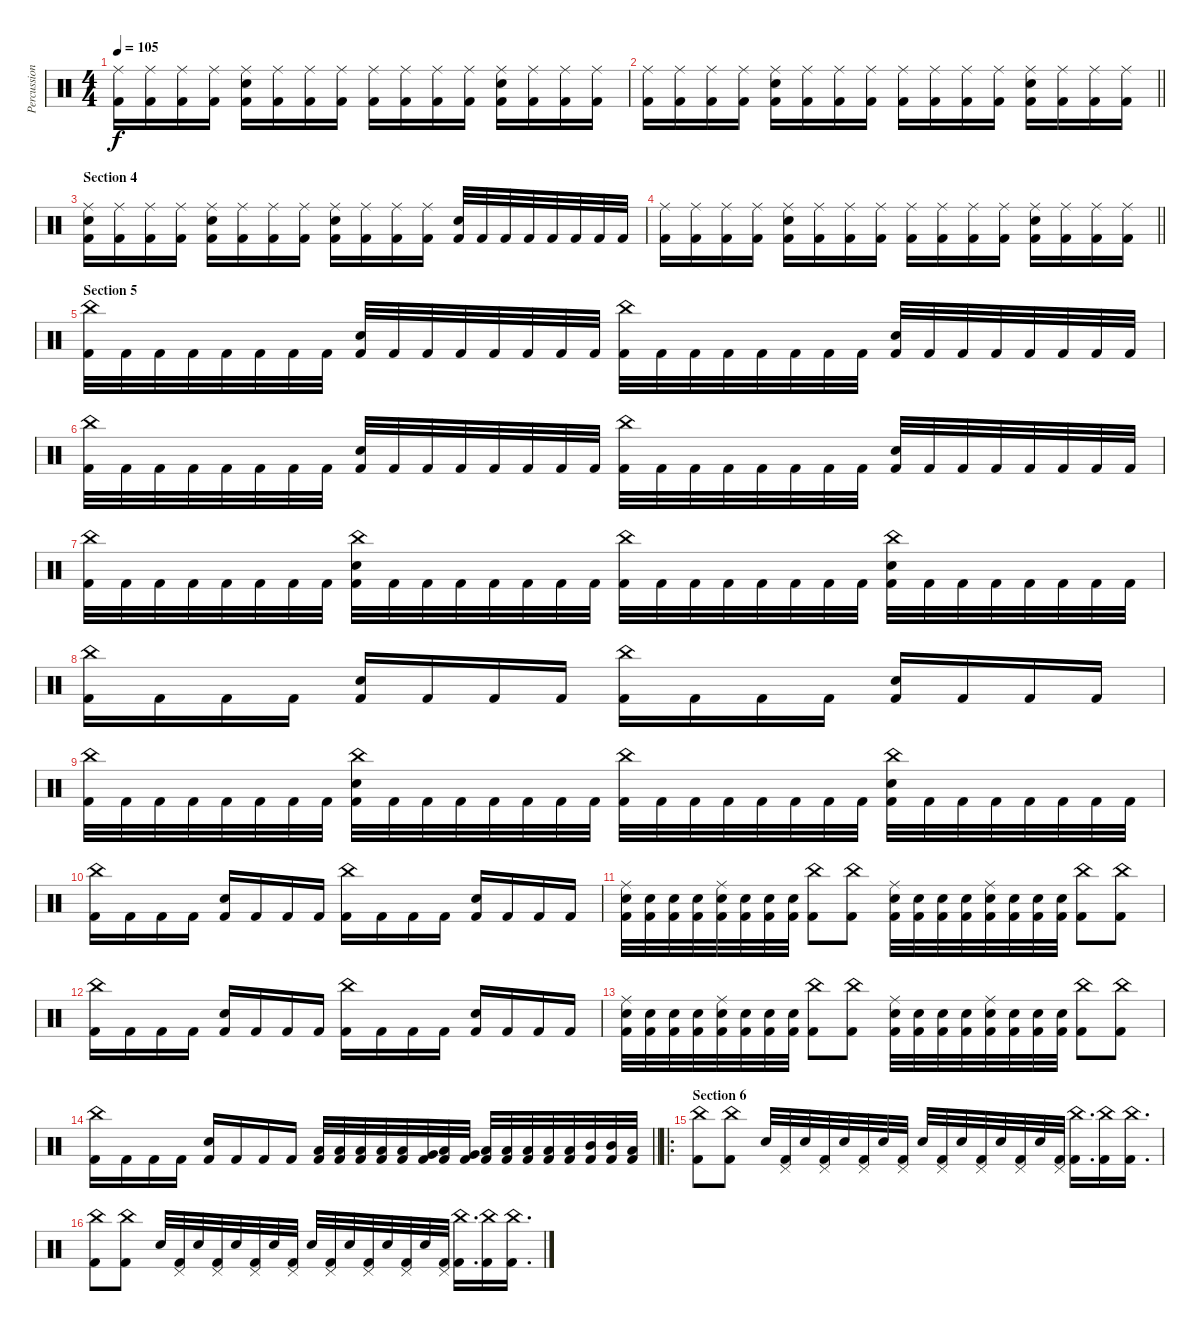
\track ("Percussions" "Percussion") {instrument percussion}
\staff {score}
\articulation defaults
\ts (4 4)
\tempo 105
\clef neutral
\ks c
("Ride (middle)" "Kick (hit) 2").16{dy f} ("Ride (middle)" "Kick (hit) 2").16 ("Ride (middle)" "Kick (hit) 2").16 ("Ride (middle)" "Kick (hit) 2").16 ("Ride (middle)" "Electric Snare (hit)" "Kick (hit) 2").16 ("Ride (middle)" "Kick (hit) 2").16 ("Ride (middle)" "Kick (hit) 2").16 ("Ride (middle)" "Kick (hit) 2").16 ("Ride (middle)" "Kick (hit) 2").16 ("Ride (middle)" "Kick (hit) 2").16 ("Ride (middle)" "Kick (hit) 2").16 ("Ride (middle)" "Kick (hit) 2").16 ("Ride (middle)" "Electric Snare (hit)" "Kick (hit) 2").16 ("Ride (middle)" "Kick (hit) 2").16 ("Ride (middle)" "Kick (hit) 2").16 ("Ride (middle)" "Kick (hit) 2").16 |
\barLineRight lightlight
("Ride (middle)" "Kick (hit) 2").16 ("Ride (middle)" "Kick (hit) 2").16 ("Ride (middle)" "Kick (hit) 2").16 ("Ride (middle)" "Kick (hit) 2").16 ("Ride (middle)" "Electric Snare (hit)" "Kick (hit) 2").16 ("Ride (middle)" "Kick (hit) 2").16 ("Ride (middle)" "Kick (hit) 2").16 ("Ride (middle)" "Kick (hit) 2").16 ("Ride (middle)" "Kick (hit) 2").16 ("Ride (middle)" "Kick (hit) 2").16 ("Ride (middle)" "Kick (hit) 2").16 ("Ride (middle)" "Kick (hit) 2").16 ("Ride (middle)" "Electric Snare (hit)" "Kick (hit) 2").16 ("Ride (middle)" "Kick (hit) 2").16 ("Ride (middle)" "Kick (hit) 2").16 ("Ride (middle)" "Kick (hit) 2").16 |
\section ("" "Section 4")
("Ride (middle)" "Electric Snare (hit)" "Kick (hit) 2").16 ("Ride (middle)" "Kick (hit) 2").16 ("Ride (middle)" "Kick (hit) 2").16 ("Ride (middle)" "Kick (hit) 2").16 ("Ride (middle)" "Electric Snare (hit)" "Kick (hit) 2").16 ("Ride (middle)" "Kick (hit) 2").16 ("Ride (middle)" "Kick (hit) 2").16 ("Ride (middle)" "Kick (hit) 2").16 ("Ride (middle)" "Electric Snare (hit)" "Kick (hit) 2").16 ("Ride (middle)" "Kick (hit) 2").16 ("Ride (middle)" "Kick (hit) 2").16 ("Ride (middle)" "Kick (hit) 2").16 ("Electric Snare (hit)" "Kick (hit) 2").32 "Kick (hit) 2".32 "Kick (hit) 2".32 "Kick (hit) 2".32 "Kick (hit) 2".32 "Kick (hit) 2".32 "Kick (hit) 2".32 "Kick (hit) 2".32 |
\barLineRight lightlight
("Ride (middle)" "Kick (hit) 2").16 ("Ride (middle)" "Kick (hit) 2").16 ("Ride (middle)" "Kick (hit) 2").16 ("Ride (middle)" "Kick (hit) 2").16 ("Ride (middle)" "Electric Snare (hit)" "Kick (hit) 2").16 ("Ride (middle)" "Kick (hit) 2").16 ("Ride (middle)" "Kick (hit) 2").16 ("Ride (middle)" "Kick (hit) 2").16 ("Ride (middle)" "Kick (hit) 2").16 ("Ride (middle)" "Kick (hit) 2").16 ("Ride (middle)" "Kick (hit) 2").16 ("Ride (middle)" "Kick (hit) 2").16 ("Ride (middle)" "Electric Snare (hit)" "Kick (hit) 2").16 ("Ride (middle)" "Kick (hit) 2").16 ("Ride (middle)" "Kick (hit) 2").16 ("Ride (middle)" "Kick (hit) 2").16 |
\section ("" "Section 5")
("China (hit)" "Kick (hit) 2").32 "Kick (hit) 2".32 "Kick (hit) 2".32 "Kick (hit) 2".32 "Kick (hit) 2".32 "Kick (hit) 2".32 "Kick (hit) 2".32 "Kick (hit) 2".32 ("Electric Snare (hit)" "Kick (hit) 2").32 "Kick (hit) 2".32 "Kick (hit) 2".32 "Kick (hit) 2".32 "Kick (hit) 2".32 "Kick (hit) 2".32 "Kick (hit) 2".32 "Kick (hit) 2".32 ("China (hit)" "Kick (hit) 2").32 "Kick (hit) 2".32 "Kick (hit) 2".32 "Kick (hit) 2".32 "Kick (hit) 2".32 "Kick (hit) 2".32 "Kick (hit) 2".32 "Kick (hit) 2".32 ("Electric Snare (hit)" "Kick (hit) 2").32 "Kick (hit) 2".32 "Kick (hit) 2".32 "Kick (hit) 2".32 "Kick (hit) 2".32 "Kick (hit) 2".32 "Kick (hit) 2".32 "Kick (hit) 2".32 |
("China (hit)" "Kick (hit) 2").32 "Kick (hit) 2".32 "Kick (hit) 2".32 "Kick (hit) 2".32 "Kick (hit) 2".32 "Kick (hit) 2".32 "Kick (hit) 2".32 "Kick (hit) 2".32 ("Electric Snare (hit)" "Kick (hit) 2").32 "Kick (hit) 2".32 "Kick (hit) 2".32 "Kick (hit) 2".32 "Kick (hit) 2".32 "Kick (hit) 2".32 "Kick (hit) 2".32 "Kick (hit) 2".32 ("China (hit)" "Kick (hit) 2").32 "Kick (hit) 2".32 "Kick (hit) 2".32 "Kick (hit) 2".32 "Kick (hit) 2".32 "Kick (hit) 2".32 "Kick (hit) 2".32 "Kick (hit) 2".32 ("Electric Snare (hit)" "Kick (hit) 2").32 "Kick (hit) 2".32 "Kick (hit) 2".32 "Kick (hit) 2".32 "Kick (hit) 2".32 "Kick (hit) 2".32 "Kick (hit) 2".32 "Kick (hit) 2".32 |
("China (hit)" "Kick (hit) 2").32 "Kick (hit) 2".32 "Kick (hit) 2".32 "Kick (hit) 2".32 "Kick (hit) 2".32 "Kick (hit) 2".32 "Kick (hit) 2".32 "Kick (hit) 2".32 ("China (hit)" "Electric Snare (hit)" "Kick (hit) 2").32 "Kick (hit) 2".32 "Kick (hit) 2".32 "Kick (hit) 2".32 "Kick (hit) 2".32 "Kick (hit) 2".32 "Kick (hit) 2".32 "Kick (hit) 2".32 ("China (hit)" "Kick (hit) 2").32 "Kick (hit) 2".32 "Kick (hit) 2".32 "Kick (hit) 2".32 "Kick (hit) 2".32 "Kick (hit) 2".32 "Kick (hit) 2".32 "Kick (hit) 2".32 ("China (hit)" "Electric Snare (hit)" "Kick (hit) 2").32 "Kick (hit) 2".32 "Kick (hit) 2".32 "Kick (hit) 2".32 "Kick (hit) 2".32 "Kick (hit) 2".32 "Kick (hit) 2".32 "Kick (hit) 2".32 |
("China (hit)" "Kick (hit) 2").16 "Kick (hit) 2".16 "Kick (hit) 2".16 "Kick (hit) 2".16 ("Electric Snare (hit)" "Kick (hit) 2").16 "Kick (hit) 2".16 "Kick (hit) 2".16 "Kick (hit) 2".16 ("China (hit)" "Kick (hit) 2").16 "Kick (hit) 2".16 "Kick (hit) 2".16 "Kick (hit) 2".16 ("Electric Snare (hit)" "Kick (hit) 2").16 "Kick (hit) 2".16 "Kick (hit) 2".16 "Kick (hit) 2".16 |
("China (hit)" "Kick (hit) 2").32 "Kick (hit) 2".32 "Kick (hit) 2".32 "Kick (hit) 2".32 "Kick (hit) 2".32 "Kick (hit) 2".32 "Kick (hit) 2".32 "Kick (hit) 2".32 ("China (hit)" "Electric Snare (hit)" "Kick (hit) 2").32 "Kick (hit) 2".32 "Kick (hit) 2".32 "Kick (hit) 2".32 "Kick (hit) 2".32 "Kick (hit) 2".32 "Kick (hit) 2".32 "Kick (hit) 2".32 ("China (hit)" "Kick (hit) 2").32 "Kick (hit) 2".32 "Kick (hit) 2".32 "Kick (hit) 2".32 "Kick (hit) 2".32 "Kick (hit) 2".32 "Kick (hit) 2".32 "Kick (hit) 2".32 ("China (hit)" "Electric Snare (hit)" "Kick (hit) 2").32 "Kick (hit) 2".32 "Kick (hit) 2".32 "Kick (hit) 2".32 "Kick (hit) 2".32 "Kick (hit) 2".32 "Kick (hit) 2".32 "Kick (hit) 2".32 |
("China (hit)" "Kick (hit) 2").16 "Kick (hit) 2".16 "Kick (hit) 2".16 "Kick (hit) 2".16 ("Electric Snare (hit)" "Kick (hit) 2").16 "Kick (hit) 2".16 "Kick (hit) 2".16 "Kick (hit) 2".16 ("China (hit)" "Kick (hit) 2").16 "Kick (hit) 2".16 "Kick (hit) 2".16 "Kick (hit) 2".16 ("Electric Snare (hit)" "Kick (hit) 2").16 "Kick (hit) 2".16 "Kick (hit) 2".16 "Kick (hit) 2".16 |
("Ride (middle)" "Electric Snare (hit)" "Kick (hit) 2").32 ("Electric Snare (hit)" "Kick (hit) 2").32 ("Electric Snare (hit)" "Kick (hit) 2").32 ("Electric Snare (hit)" "Kick (hit) 2").32 ("Ride (middle)" "Electric Snare (hit)" "Kick (hit) 2").32 ("Electric Snare (hit)" "Kick (hit) 2").32 ("Electric Snare (hit)" "Kick (hit) 2").32 ("Electric Snare (hit)" "Kick (hit) 2").32 ("China (hit)" "Kick (hit) 2").8 ("China (hit)" "Kick (hit) 2").8 ("Ride (middle)" "Electric Snare (hit)" "Kick (hit) 2").32 ("Electric Snare (hit)" "Kick (hit) 2").32 ("Electric Snare (hit)" "Kick (hit) 2").32 ("Electric Snare (hit)" "Kick (hit) 2").32 ("Ride (middle)" "Electric Snare (hit)" "Kick (hit) 2").32 ("Electric Snare (hit)" "Kick (hit) 2").32 ("Electric Snare (hit)" "Kick (hit) 2").32 ("Electric Snare (hit)" "Kick (hit) 2").32 ("China (hit)" "Kick (hit) 2").8 ("China (hit)" "Kick (hit) 2").8 |
("China (hit)" "Kick (hit) 2").16 "Kick (hit) 2".16 "Kick (hit) 2".16 "Kick (hit) 2".16 ("Electric Snare (hit)" "Kick (hit) 2").16 "Kick (hit) 2".16 "Kick (hit) 2".16 "Kick (hit) 2".16 ("China (hit)" "Kick (hit) 2").16 "Kick (hit) 2".16 "Kick (hit) 2".16 "Kick (hit) 2".16 ("Electric Snare (hit)" "Kick (hit) 2").16 "Kick (hit) 2".16 "Kick (hit) 2".16 "Kick (hit) 2".16 |
("Ride (middle)" "Electric Snare (hit)" "Kick (hit) 2").32 ("Electric Snare (hit)" "Kick (hit) 2").32 ("Electric Snare (hit)" "Kick (hit) 2").32 ("Electric Snare (hit)" "Kick (hit) 2").32 ("Ride (middle)" "Electric Snare (hit)" "Kick (hit) 2").32 ("Electric Snare (hit)" "Kick (hit) 2").32 ("Electric Snare (hit)" "Kick (hit) 2").32 ("Electric Snare (hit)" "Kick (hit) 2").32 ("China (hit)" "Kick (hit) 2").8 ("China (hit)" "Kick (hit) 2").8 ("Ride (middle)" "Electric Snare (hit)" "Kick (hit) 2").32 ("Electric Snare (hit)" "Kick (hit) 2").32 ("Electric Snare (hit)" "Kick (hit) 2").32 ("Electric Snare (hit)" "Kick (hit) 2").32 ("Ride (middle)" "Electric Snare (hit)" "Kick (hit) 2").32 ("Electric Snare (hit)" "Kick (hit) 2").32 ("Electric Snare (hit)" "Kick (hit) 2").32 ("Electric Snare (hit)" "Kick (hit) 2").32 ("China (hit)" "Kick (hit) 2").8 ("China (hit)" "Kick (hit) 2").8 |
\barLineRight lightlight
("China (hit)" "Kick (hit) 2").16 "Kick (hit) 2".16 "Kick (hit) 2".16 "Kick (hit) 2".16 ("Electric Snare (hit)" "Kick (hit) 2").16 "Kick (hit) 2".16 "Kick (hit) 2".16 "Kick (hit) 2".16 ("Low Floor Tom (hit)" "Kick (hit) 2").32 ("Low Floor Tom (hit)" "Kick (hit) 2").32 ("Low Tom (hit)" "Kick (hit) 2").32 ("Low Tom (hit)" "Kick (hit) 2").32 ("Low Floor Tom (hit)" "Kick (hit) 2").32 ("Very Low Tom (hit)" "Kick (hit) 2").32 ("Low Floor Tom (hit)" "Kick (hit) 2").32 ("Very Low Tom (hit)" "Kick (hit) 2").32 ("Low Floor Tom (hit)" "Kick (hit) 2").32 ("Low Floor Tom (hit)" "Kick (hit) 2").32 ("Low Floor Tom (hit)" "Kick (hit) 2").32 ("Low Tom (hit)" "Kick (hit) 2").32 ("Low Tom (hit)" "Kick (hit) 2").32 ("Mid Tom (hit)" "Kick (hit) 2").32 ("Mid Tom (hit)" "Kick (hit) 2").32 ("Low Tom (hit)" "Kick (hit) 2").32 |
\ro
\section ("" "Section 6")
("China (hit)" "Kick (hit) 2").8 ("China (hit)" "Kick (hit) 2").8 "Electric Snare (hit)".32 ("Pedal Hi-Hat (hit)" "Kick (hit) 2").32 "Electric Snare (hit)".32 ("Pedal Hi-Hat (hit)" "Kick (hit) 2").32 "Electric Snare (hit)".32 ("Pedal Hi-Hat (hit)" "Kick (hit) 2").32 "Electric Snare (hit)".32 ("Pedal Hi-Hat (hit)" "Kick (hit) 2").32 "Electric Snare (hit)".32 ("Pedal Hi-Hat (hit)" "Kick (hit) 2").32 "Electric Snare (hit)".32 ("Pedal Hi-Hat (hit)" "Kick (hit) 2").32 "Electric Snare (hit)".32 ("Pedal Hi-Hat (hit)" "Kick (hit) 2").32 "Electric Snare (hit)".32 ("Pedal Hi-Hat (hit)" "Kick (hit) 2").32 ("China (hit)" "Kick (hit) 2").16{d} ("China (hit)" "Kick (hit) 2").16 ("China (hit)" "Kick (hit) 2").16{d} |
("China (hit)" "Kick (hit) 2").8 ("China (hit)" "Kick (hit) 2").8 "Electric Snare (hit)".32 ("Pedal Hi-Hat (hit)" "Kick (hit) 2").32 "Electric Snare (hit)".32 ("Pedal Hi-Hat (hit)" "Kick (hit) 2").32 "Electric Snare (hit)".32 ("Pedal Hi-Hat (hit)" "Kick (hit) 2").32 "Electric Snare (hit)".32 ("Pedal Hi-Hat (hit)" "Kick (hit) 2").32 "Electric Snare (hit)".32 ("Pedal Hi-Hat (hit)" "Kick (hit) 2").32 "Electric Snare (hit)".32 ("Pedal Hi-Hat (hit)" "Kick (hit) 2").32 "Electric Snare (hit)".32 ("Pedal Hi-Hat (hit)" "Kick (hit) 2").32 "Electric Snare (hit)".32 ("Pedal Hi-Hat (hit)" "Kick (hit) 2").32 ("China (hit)" "Kick (hit) 2").16{d} ("China (hit)" "Kick (hit) 2").16 ("China (hit)" "Kick (hit) 2").16{d}
